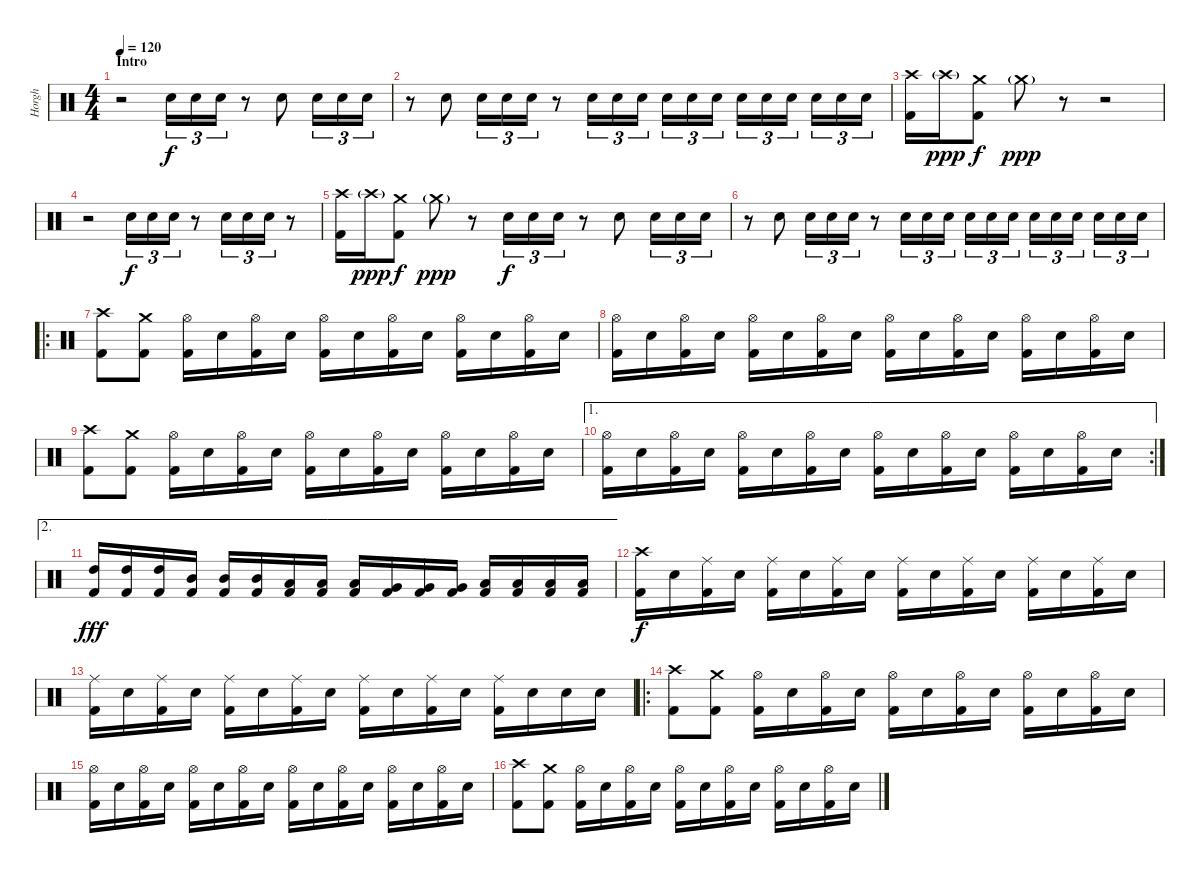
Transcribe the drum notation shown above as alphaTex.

\track ("Horgh" "Horgh") {instrument percussion}
\staff {score}
\articulation defaults
\ts (4 4)
\section ("" "Intro")
\tempo 120
\tempo 195
\tempo 120
\clef neutral
\ks c
r.2{dy f} "Electric Snare (hit)".16{tu (3 2)} "Electric Snare (hit)".16{tu (3 2)} "Electric Snare (hit)".16{tu (3 2)} r.8 "Electric Snare (hit)".8 "Electric Snare (hit)".16{tu (3 2)} "Electric Snare (hit)".16{tu (3 2)} "Electric Snare (hit)".16{tu (3 2)} |
r.8 "Electric Snare (hit)".8 "Electric Snare (hit)".16{tu (3 2)} "Electric Snare (hit)".16{tu (3 2)} "Electric Snare (hit)".16{tu (3 2)} r.8 "Electric Snare (hit)".16{tu (3 2)} "Electric Snare (hit)".16{tu (3 2)} "Electric Snare (hit)".16{tu (3 2)} "Electric Snare (hit)".16{tu (3 2)} "Electric Snare (hit)".16{tu (3 2)} "Electric Snare (hit)".16{tu (3 2)} "Electric Snare (hit)".16{tu (3 2)} "Electric Snare (hit)".16{tu (3 2)} "Electric Snare (hit)".16{tu (3 2)} "Electric Snare (hit)".16{tu (3 2)} "Electric Snare (hit)".16{tu (3 2)} "Electric Snare (hit)".16{tu (3 2)} |
("Crash high (hit)" "Kick (hit) 2").16 "Crash high (hit)"{g}.16{dy ppp} ("Crash medium (hit)" "Kick (hit) 2").8{dy f} "Crash medium (hit)"{g}.8{dy ppp} r.8{volume 0} r.2 |
r.2 "Electric Snare (hit)".16{tu (3 2) dy f volume 15} "Electric Snare (hit)".16{tu (3 2)} "Electric Snare (hit)".16{tu (3 2)} r.8 "Electric Snare (hit)".16{tu (3 2)} "Electric Snare (hit)".16{tu (3 2)} "Electric Snare (hit)".16{tu (3 2)} r.8 |
("Crash high (hit)" "Kick (hit) 2").16{volume 15} "Crash high (hit)"{g}.16{dy ppp} ("Crash medium (hit)" "Kick (hit) 2").8{dy f} "Crash medium (hit)"{g}.8{dy ppp} r.8{volume 0} "Electric Snare (hit)".16{tu (3 2) dy f volume 15} "Electric Snare (hit)".16{tu (3 2)} "Electric Snare (hit)".16{tu (3 2)} r.8 "Electric Snare (hit)".8 "Electric Snare (hit)".16{tu (3 2)} "Electric Snare (hit)".16{tu (3 2)} "Electric Snare (hit)".16{tu (3 2)} |
r.8 "Electric Snare (hit)".8 "Electric Snare (hit)".16{tu (3 2)} "Electric Snare (hit)".16{tu (3 2)} "Electric Snare (hit)".16{tu (3 2)} r.8 "Electric Snare (hit)".16{tu (3 2)} "Electric Snare (hit)".16{tu (3 2)} "Electric Snare (hit)".16{tu (3 2)} "Electric Snare (hit)".16{tu (3 2)} "Electric Snare (hit)".16{tu (3 2)} "Electric Snare (hit)".16{tu (3 2)} "Electric Snare (hit)".16{tu (3 2)} "Electric Snare (hit)".16{tu (3 2)} "Electric Snare (hit)".16{tu (3 2)} "Electric Snare (hit)".16{tu (3 2)} "Electric Snare (hit)".16{tu (3 2)} "Electric Snare (hit)".16{tu (3 2)} |
\ro
("Crash high (hit)" "Kick (hit) 2").8 ("Crash medium (hit)" "Kick (hit) 2").8 ("Hi-Hat (open)" "Kick (hit) 2").16 "Electric Snare (hit)".16 ("Hi-Hat (open)" "Kick (hit) 2").16 "Electric Snare (hit)".16 ("Hi-Hat (open)" "Kick (hit) 2").16 "Electric Snare (hit)".16 ("Hi-Hat (open)" "Kick (hit) 2").16 "Electric Snare (hit)".16 ("Hi-Hat (open)" "Kick (hit) 2").16 "Electric Snare (hit)".16 ("Hi-Hat (open)" "Kick (hit) 2").16 "Electric Snare (hit)".16 |
("Hi-Hat (open)" "Kick (hit) 2").16 "Electric Snare (hit)".16 ("Hi-Hat (open)" "Kick (hit) 2").16 "Electric Snare (hit)".16 ("Hi-Hat (open)" "Kick (hit) 2").16 "Electric Snare (hit)".16 ("Hi-Hat (open)" "Kick (hit) 2").16 "Electric Snare (hit)".16 ("Hi-Hat (open)" "Kick (hit) 2").16 "Electric Snare (hit)".16 ("Hi-Hat (open)" "Kick (hit) 2").16 "Electric Snare (hit)".16 ("Hi-Hat (open)" "Kick (hit) 2").16 "Electric Snare (hit)".16 ("Hi-Hat (open)" "Kick (hit) 2").16 "Electric Snare (hit)".16 |
("Crash high (hit)" "Kick (hit) 2").8 ("Crash medium (hit)" "Kick (hit) 2").8 ("Hi-Hat (open)" "Kick (hit) 2").16 "Electric Snare (hit)".16 ("Hi-Hat (open)" "Kick (hit) 2").16 "Electric Snare (hit)".16 ("Hi-Hat (open)" "Kick (hit) 2").16 "Electric Snare (hit)".16 ("Hi-Hat (open)" "Kick (hit) 2").16 "Electric Snare (hit)".16 ("Hi-Hat (open)" "Kick (hit) 2").16 "Electric Snare (hit)".16 ("Hi-Hat (open)" "Kick (hit) 2").16 "Electric Snare (hit)".16 |
\ae 1
\rc 2
("Hi-Hat (open)" "Kick (hit) 2").16 "Electric Snare (hit)".16 ("Hi-Hat (open)" "Kick (hit) 2").16 "Electric Snare (hit)".16 ("Hi-Hat (open)" "Kick (hit) 2").16 "Electric Snare (hit)".16 ("Hi-Hat (open)" "Kick (hit) 2").16 "Electric Snare (hit)".16 ("Hi-Hat (open)" "Kick (hit) 2").16 "Electric Snare (hit)".16 ("Hi-Hat (open)" "Kick (hit) 2").16 "Electric Snare (hit)".16 ("Hi-Hat (open)" "Kick (hit) 2").16 "Electric Snare (hit)".16 ("Hi-Hat (open)" "Kick (hit) 2").16 "Electric Snare (hit)".16 |
\ae 2
("High Tom (hit)" "Kick (hit) 2").16{dy fff} ("High Tom (hit)" "Kick (hit) 2").16 ("High Tom (hit)" "Kick (hit) 2").16 ("Mid Tom (hit)" "Kick (hit) 2").16 ("Mid Tom (hit)" "Kick (hit) 2").16 ("Mid Tom (hit)" "Kick (hit) 2").16 ("Low Tom (hit)" "Kick (hit) 2").16 ("Low Tom (hit)" "Kick (hit) 2").16 ("Low Tom (hit)" "Kick (hit) 2").16 ("Very Low Tom (hit)" "Kick (hit) 2").16 ("Very Low Tom (hit)" "Kick (hit) 2").16 ("Very Low Tom (hit)" "Kick (hit) 2").16 ("Low Floor Tom (hit)" "Kick (hit) 2").16 ("Low Floor Tom (hit)" "Kick (hit) 2").16 ("Low Floor Tom (hit)" "Kick (hit) 2").16 ("Low Floor Tom (hit)" "Kick (hit) 2").16 |
("Crash high (hit)" "Kick (hit) 2").16{dy f} "Electric Snare (hit)".16 ("Ride (middle)" "Kick (hit) 2").16 "Electric Snare (hit)".16 ("Ride (middle)" "Kick (hit) 2").16 "Electric Snare (hit)".16 ("Ride (middle)" "Kick (hit) 2").16 "Electric Snare (hit)".16 ("Ride (middle)" "Kick (hit) 2").16 "Electric Snare (hit)".16 ("Ride (middle)" "Kick (hit) 2").16 "Electric Snare (hit)".16 ("Ride (middle)" "Kick (hit) 2").16 "Electric Snare (hit)".16 ("Ride (middle)" "Kick (hit) 2").16 "Electric Snare (hit)".16 |
("Ride (middle)" "Kick (hit) 2").16 "Electric Snare (hit)".16 ("Ride (middle)" "Kick (hit) 2").16 "Electric Snare (hit)".16 ("Ride (middle)" "Kick (hit) 2").16 "Electric Snare (hit)".16 ("Ride (middle)" "Kick (hit) 2").16 "Electric Snare (hit)".16 ("Ride (middle)" "Kick (hit) 2").16 "Electric Snare (hit)".16 ("Ride (middle)" "Kick (hit) 2").16 "Electric Snare (hit)".16 ("Ride (middle)" "Kick (hit) 2").16 "Electric Snare (hit)".16 "Electric Snare (hit)".16 "Electric Snare (hit)".16 |
\ro
("Crash high (hit)" "Kick (hit) 2").8 ("Crash medium (hit)" "Kick (hit) 2").8 ("Hi-Hat (open)" "Kick (hit) 2").16 "Electric Snare (hit)".16 ("Hi-Hat (open)" "Kick (hit) 2").16 "Electric Snare (hit)".16 ("Hi-Hat (open)" "Kick (hit) 2").16 "Electric Snare (hit)".16 ("Hi-Hat (open)" "Kick (hit) 2").16 "Electric Snare (hit)".16 ("Hi-Hat (open)" "Kick (hit) 2").16 "Electric Snare (hit)".16 ("Hi-Hat (open)" "Kick (hit) 2").16 "Electric Snare (hit)".16 |
("Hi-Hat (open)" "Kick (hit) 2").16 "Electric Snare (hit)".16 ("Hi-Hat (open)" "Kick (hit) 2").16 "Electric Snare (hit)".16 ("Hi-Hat (open)" "Kick (hit) 2").16 "Electric Snare (hit)".16 ("Hi-Hat (open)" "Kick (hit) 2").16 "Electric Snare (hit)".16 ("Hi-Hat (open)" "Kick (hit) 2").16 "Electric Snare (hit)".16 ("Hi-Hat (open)" "Kick (hit) 2").16 "Electric Snare (hit)".16 ("Hi-Hat (open)" "Kick (hit) 2").16 "Electric Snare (hit)".16 ("Hi-Hat (open)" "Kick (hit) 2").16 "Electric Snare (hit)".16 |
("Crash high (hit)" "Kick (hit) 2").8 ("Crash medium (hit)" "Kick (hit) 2").8 ("Hi-Hat (open)" "Kick (hit) 2").16 "Electric Snare (hit)".16 ("Hi-Hat (open)" "Kick (hit) 2").16 "Electric Snare (hit)".16 ("Hi-Hat (open)" "Kick (hit) 2").16 "Electric Snare (hit)".16 ("Hi-Hat (open)" "Kick (hit) 2").16 "Electric Snare (hit)".16 ("Hi-Hat (open)" "Kick (hit) 2").16 "Electric Snare (hit)".16 ("Hi-Hat (open)" "Kick (hit) 2").16 "Electric Snare (hit)".16
